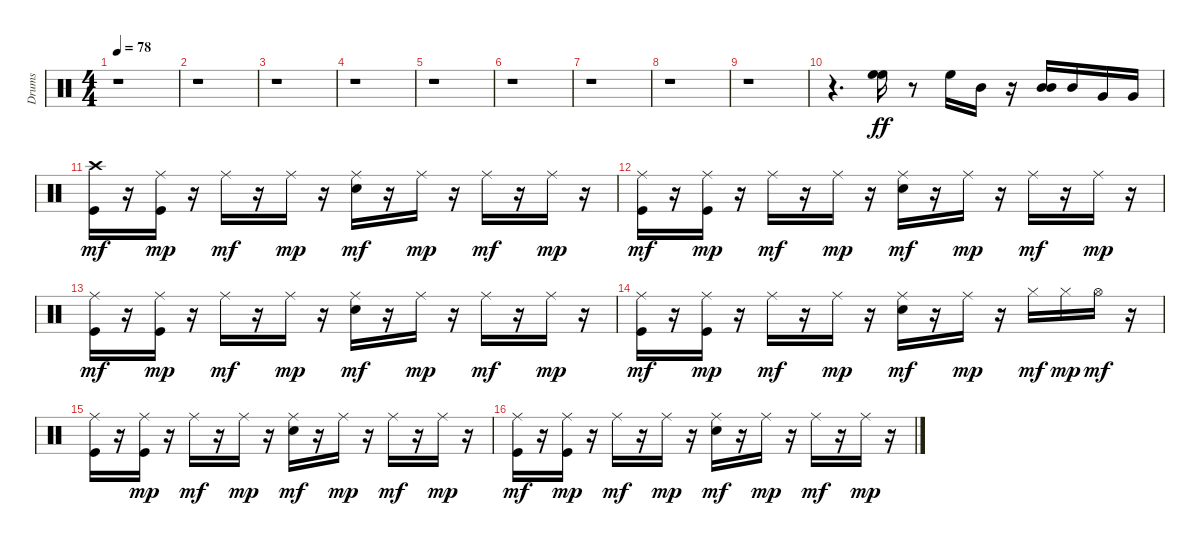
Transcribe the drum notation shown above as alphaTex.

\track ("Drums" "Drums") {instrument percussion}
\staff {score}
\articulation defaults
\ts (4 4)
\tempo 78
\clef neutral
\ks c
r.1{dy ff} |
r.1 |
r.1 |
r.1 |
r.1 |
r.1 |
r.1 |
r.1 |
r.1 |
r.4{d} ("High Floor Tom (hit)" "High Floor Tom (hit)").16 r.8 "High Floor Tom (hit)".16 "Mid Tom (hit)".16 r.16 ("Mid Tom (hit)" "Mid Tom (hit)").16 "Mid Tom (hit)".16 "Very Low Tom (hit)".16 "Very Low Tom (hit)".16 |
("Kick (hit)" "Crash high (hit)").16{dy mf} r.16 ("Kick (hit)" "Ride (middle)").16{dy mp} r.16 "Ride (middle)".16{dy mf} r.16 "Ride (middle)".16{dy mp} r.16 ("Snare (hit) 2" "Ride (middle)").16{dy mf} r.16 "Ride (middle)".16{dy mp} r.16 "Ride (middle)".16{dy mf} r.16 "Ride (middle)".16{dy mp} r.16 |
("Kick (hit)" "Ride (middle)").16{dy mf} r.16 ("Kick (hit)" "Ride (middle)").16{dy mp} r.16 "Ride (middle)".16{dy mf} r.16 "Ride (middle)".16{dy mp} r.16 ("Snare (hit) 2" "Ride (middle)").16{dy mf} r.16 "Ride (middle)".16{dy mp} r.16 "Ride (middle)".16{dy mf} r.16 "Ride (middle)".16{dy mp} r.16 |
("Kick (hit)" "Ride (middle)").16{dy mf} r.16 ("Kick (hit)" "Ride (middle)").16{dy mp} r.16 "Ride (middle)".16{dy mf} r.16 "Ride (middle)".16{dy mp} r.16 ("Snare (hit) 2" "Ride (middle)").16{dy mf} r.16 "Ride (middle)".16{dy mp} r.16 "Ride (middle)".16{dy mf} r.16 "Ride (middle)".16{dy mp} r.16 |
("Kick (hit)" "Ride (middle)").16{dy mf} r.16 ("Kick (hit)" "Ride (middle)").16{dy mp} r.16 "Ride (middle)".16{dy mf} r.16 "Ride (middle)".16{dy mp} r.16 ("Snare (hit) 2" "Ride (middle)").16{dy mf} r.16 "Ride (middle)".16{dy mp} r.16 "Hi-Hat (closed)".16{dy mf} "Hi-Hat (closed)".16{dy mp} "Hi-Hat (open)".16{dy mf} r.16 |
("Kick (hit)" "Ride (middle)").16 r.16 ("Kick (hit)" "Ride (middle)").16{dy mp} r.16 "Ride (middle)".16{dy mf} r.16 "Ride (middle)".16{dy mp} r.16 ("Snare (hit) 2" "Ride (middle)").16{dy mf} r.16 "Ride (middle)".16{dy mp} r.16 "Ride (middle)".16{dy mf} r.16 "Ride (middle)".16{dy mp} r.16 |
("Kick (hit)" "Ride (middle)").16{dy mf} r.16 ("Kick (hit)" "Ride (middle)").16{dy mp} r.16 "Ride (middle)".16{dy mf} r.16 "Ride (middle)".16{dy mp} r.16 ("Snare (hit) 2" "Ride (middle)").16{dy mf} r.16 "Ride (middle)".16{dy mp} r.16 "Ride (middle)".16{dy mf} r.16 "Ride (middle)".16{dy mp} r.16
